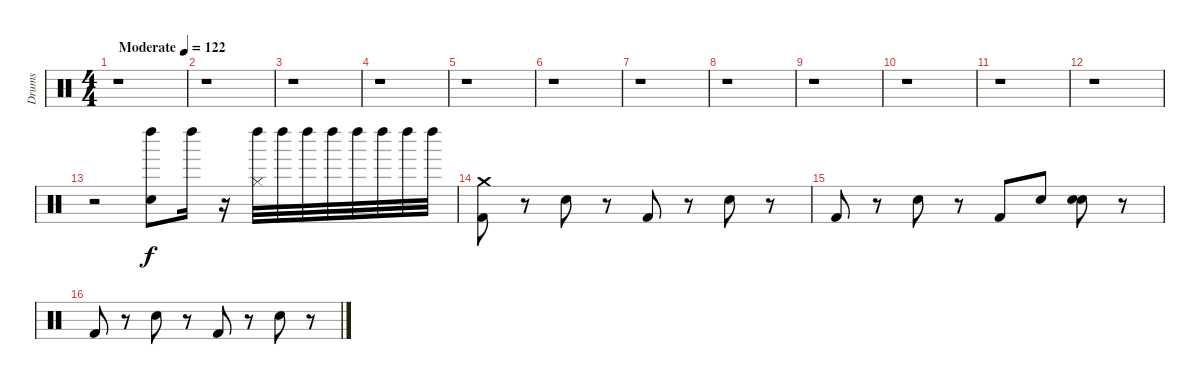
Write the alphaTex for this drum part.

\track ("Drums" "Drums") {instrument percussion}
\staff {score}
\articulation defaults
\ts (4 4)
\tempo (122 "Moderate")
\clef neutral
\ks c
r.1{dy f} |
r.1 |
r.1 |
r.1 |
r.1 |
r.1 |
r.1 |
r.1 |
r.1 |
r.1 |
r.1 |
r.1 |
r.2 ("Hand Clap (hit)" "Left Maraca (hit)").8 "Left Maraca (hit)".16 r.16 ("Hi-Hat (closed)" "Left Maraca (hit)").32 "Left Maraca (hit)".32 "Left Maraca (hit)".32 "Left Maraca (hit)".32 "Left Maraca (hit)".32 "Left Maraca (hit)".32 "Left Maraca (hit)".32 "Left Maraca (hit)".32 |
("Kick (hit) 2" "Crash medium (hit)").8 r.8 "Snare (hit) 2".8 r.8 "Kick (hit) 2".8 r.8 "Snare (hit) 2".8 r.8 |
"Kick (hit) 2".8 r.8 "Snare (hit) 2".8 r.8 "Kick (hit) 2".8 "Hand Clap (hit)".8 ("Snare (hit) 2" "Hand Clap (hit)").8 r.8 |
"Kick (hit) 2".8 r.8 "Snare (hit) 2".8 r.8 "Kick (hit) 2".8 r.8 "Snare (hit) 2".8 r.8
